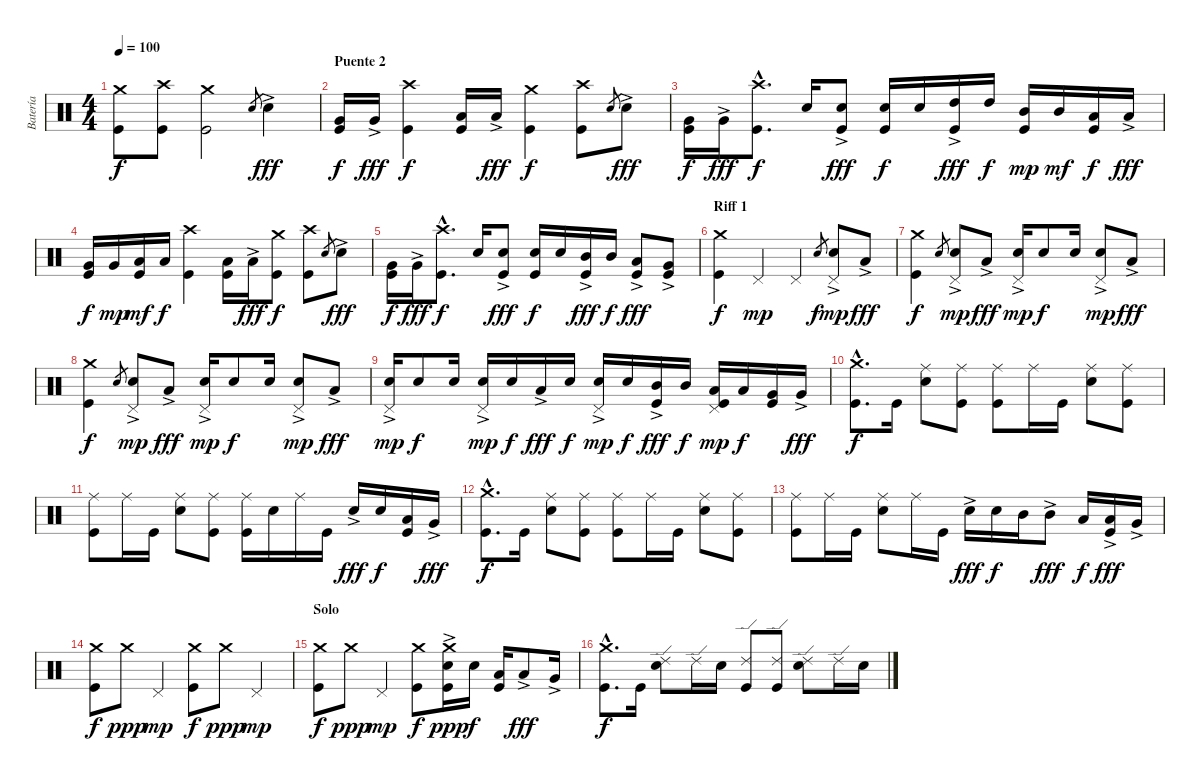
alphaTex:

\track ("Batería" "Batería") {instrument percussion}
\staff {score}
\articulation defaults
\ts (4 4)
\tempo 100
\clef neutral
\ks c
("Kick (hit)" "Crash medium (hit)").8{dy f} ("Kick (hit)" "Crash high (hit)").8 ("Kick (hit)" "Crash medium (hit)").2 "Electric Snare (hit)".8{gr} "Electric Snare (hit)"{ac}.4{dy fff} |
\section ("" "Puente 2")
("Kick (hit)" "Very Low Tom (hit)").16{dy f} "Very Low Tom (hit)"{ac}.16{dy fff} ("Kick (hit)" "Crash high (hit)").4{dy f} ("Kick (hit)" "Low Tom (hit)").16 "Low Tom (hit)"{ac}.16{dy fff} ("Kick (hit)" "Crash medium (hit)").4{dy f} ("Kick (hit)" "Crash high (hit)").8 "Electric Snare (hit)".8{gr} "Electric Snare (hit)"{ac}.8{dy fff} |
("Kick (hit)" "Very Low Tom (hit)").16{dy f} "Very Low Tom (hit)"{ac}.16{dy fff} ("Kick (hit)"{hac} "Crash high (hit)"{hac}).8{d dy f} "Electric Snare (hit)".16 ("Kick (hit)" "Electric Snare (hit)"{ac}).8{dy fff} ("Kick (hit)" "Electric Snare (hit)").16{dy f} "Electric Snare (hit)".16 ("Kick (hit)" "High Tom (hit)"{ac}).16{dy fff} "High Tom (hit)".16{dy f} ("Kick (hit)" "Mid Tom (hit)").16{dy mp} "Mid Tom (hit)".16{dy mf} ("Kick (hit)" "Low Tom (hit)").16{dy f} "Low Tom (hit)"{ac}.16{dy fff} |
("Kick (hit)" "Very Low Tom (hit)").16{dy f} "Very Low Tom (hit)".16{dy mp} ("Kick (hit)" "Low Floor Tom (hit)").16{dy mf} "Low Floor Tom (hit)".16{dy f} ("Kick (hit)" "Crash high (hit)").4 ("Kick (hit)" "Low Tom (hit)").16 "Low Tom (hit)"{ac}.16{dy fff} ("Kick (hit)" "Crash medium (hit)").8{dy f} ("Kick (hit)" "Crash high (hit)").8 "Electric Snare (hit)".8{gr} "Electric Snare (hit)"{ac}.8{dy fff} |
("Kick (hit)" "Very Low Tom (hit)").16{dy f} "Very Low Tom (hit)"{ac}.16{dy fff} ("Kick (hit)"{hac} "Crash high (hit)"{hac}).8{d dy f} "Electric Snare (hit)".16 ("Kick (hit)" "Electric Snare (hit)"{ac}).8{dy fff} ("Kick (hit)" "Electric Snare (hit)").16{dy f} "Electric Snare (hit)".16 ("Kick (hit)" "Mid Tom (hit)"{ac}).16{dy fff} "Mid Tom (hit)".16{dy f} ("Kick (hit)" "Low Tom (hit)"{ac}).8{dy fff} ("Kick (hit)" "Very Low Tom (hit)"{ac}).8 |
\section ("" "Riff 1")
("Kick (hit)" "Crash medium (hit)").4{dy f} "Pedal Hi-Hat (hit)".4{dy mp} "Pedal Hi-Hat (hit)".4 "Electric Snare (hit)".8{gr dy f} ("Electric Snare (hit)"{ac} "Pedal Hi-Hat (hit)").8{dy mp} "Low Tom (hit)"{ac}.8{dy fff} |
("Kick (hit)" "Crash medium (hit)").4{dy f} "Electric Snare (hit)".8{gr} ("Electric Snare (hit)"{ac} "Pedal Hi-Hat (hit)").8{dy mp} "Low Tom (hit)"{ac}.8{dy fff} ("Electric Snare (hit)"{ac} "Pedal Hi-Hat (hit)").16{dy mp} "Electric Snare (hit)".8{dy f} "Electric Snare (hit)".16 ("Electric Snare (hit)"{ac} "Pedal Hi-Hat (hit)").8{dy mp} "Low Tom (hit)"{ac}.8{dy fff} |
("Kick (hit)" "Crash medium (hit)").4{dy f} "Electric Snare (hit)".8{gr} ("Electric Snare (hit)"{ac} "Pedal Hi-Hat (hit)").8{dy mp} "Low Tom (hit)"{ac}.8{dy fff} ("Electric Snare (hit)"{ac} "Pedal Hi-Hat (hit)").16{dy mp} "Electric Snare (hit)".8{dy f} "Electric Snare (hit)".16 ("Electric Snare (hit)"{ac} "Pedal Hi-Hat (hit)").8{dy mp} "Low Tom (hit)"{ac}.8{dy fff} |
("Electric Snare (hit)"{ac} "Pedal Hi-Hat (hit)").16{dy mp} "Electric Snare (hit)".8{dy f} "Electric Snare (hit)".16 ("Electric Snare (hit)"{ac} "Pedal Hi-Hat (hit)").16{dy mp} "Electric Snare (hit)".16{dy f} "Low Tom (hit)"{ac}.16{dy fff} "Electric Snare (hit)".16{dy f} ("Electric Snare (hit)"{ac} "Pedal Hi-Hat (hit)").16{dy mp} "Electric Snare (hit)".16{dy f} ("Kick (hit)" "Mid Tom (hit)"{ac}).16{dy fff} "Mid Tom (hit)".16{dy f} ("Kick (hit)" "Low Tom (hit)" "Pedal Hi-Hat (hit)").16{dy mp} "Low Tom (hit)".16{dy f} ("Kick (hit)" "Very Low Tom (hit)").16 "Very Low Tom (hit)"{ac}.16{dy fff} |
("Kick (hit)"{hac} "Crash medium (hit)"{hac}).8{d dy f} "Kick (hit)".16 ("Electric Snare (hit)" "Ride (middle)").8 ("Kick (hit)" "Ride (middle)").8 ("Kick (hit)" "Ride (middle)").8 "Ride (middle)".16 "Kick (hit)".16 ("Electric Snare (hit)" "Ride (middle)").8 ("Kick (hit)" "Ride (middle)").8 |
("Kick (hit)" "Ride (middle)").8 "Ride (middle)".16 "Kick (hit)".16 ("Electric Snare (hit)" "Ride (middle)").8 ("Kick (hit)" "Ride (middle)").8 ("Kick (hit)" "Ride (middle)").16 "Electric Snare (hit)".16 "Ride (middle)".16 "Kick (hit)".16 "Electric Snare (hit)"{ac}.16{dy fff} "Electric Snare (hit)".16{dy f} ("Kick (hit)" "Low Tom (hit)").16 "Very Low Tom (hit)"{ac}.16{dy fff} |
("Kick (hit)"{hac} "Crash medium (hit)"{hac}).8{d dy f} "Kick (hit)".16 ("Electric Snare (hit)" "Ride (middle)").8 ("Kick (hit)" "Ride (middle)").8 ("Kick (hit)" "Ride (middle)").8 "Ride (middle)".16 "Kick (hit)".16 ("Electric Snare (hit)" "Ride (middle)").8 ("Kick (hit)" "Ride (middle)").8 |
("Kick (hit)" "Ride (middle)").8 "Ride (middle)".16 "Kick (hit)".16 ("Electric Snare (hit)" "Ride (middle)").8 "Ride (middle)".16 "Kick (hit)".16 "Electric Snare (hit)"{ac}.16{dy fff} "Electric Snare (hit)".16{dy f} "Mid Tom (hit)".16 "Mid Tom (hit)"{ac}.8{dy fff} "Low Tom (hit)".16{dy f} ("Kick (hit)" "Low Tom (hit)"{ac}).16{dy fff} "Very Low Tom (hit)"{ac}.16 |
("Kick (hit)" "Crash medium (hit)").8{dy f} "Crash medium (hit)".8{dy ppp} "Pedal Hi-Hat (hit)".4{dy mp} ("Kick (hit)" "Crash medium (hit)").8{dy f} "Crash medium (hit)".8{dy ppp} "Pedal Hi-Hat (hit)".4{dy mp} |
\section ("" "Solo")
("Kick (hit)" "Crash medium (hit)").8{dy f} "Crash medium (hit)".8{dy ppp} "Pedal Hi-Hat (hit)".4{dy mp} ("Kick (hit)" "Crash medium (hit)").8{dy f} ("Kick (hit)" "Electric Snare (hit)"{ac} "Crash medium (hit)").16{dy ppp} "Electric Snare (hit)".16{dy f} ("Kick (hit)" "Low Tom (hit)").16 "Low Tom (hit)"{ac}.8{dy fff} "Very Low Tom (hit)"{ac}.16 |
("Kick (hit)"{hac} "Crash medium (hit)"{hac}).8{d dy f} "Kick (hit)".16 ("Electric Snare (hit)" "Ride (edge) 2").8 "Ride (edge) 2".16 "Electric Snare (hit)".16 ("Kick (hit)" "Ride (edge) 2").8 ("Kick (hit)" "Ride (edge) 2").8 ("Electric Snare (hit)" "Ride (edge) 2").8 "Ride (edge) 2".16 "Electric Snare (hit)".16
